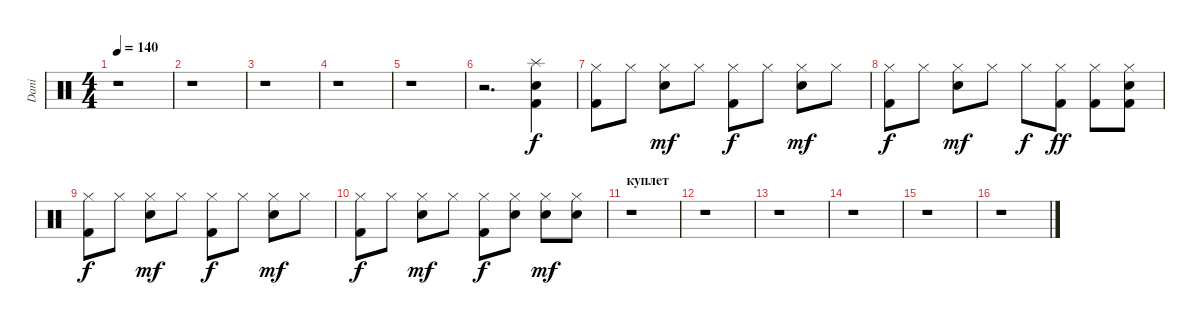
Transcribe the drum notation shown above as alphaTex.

\track ("Dani" "Dani") {instrument percussion}
\staff {score}
\articulation defaults
\ts (4 4)
\tempo 140
\clef neutral
\ks c
r.1{dy f} |
r.1 |
r.1 |
r.1 |
r.1 |
r.2{d} ("Splash (hit)" "Kick (hit) 2" "Snare (hit) 2").4 |
("Hi-Hat (closed)" "Kick (hit) 2").8 "Hi-Hat (closed)".8 ("Hi-Hat (closed)" "Snare (hit) 2").8{dy mf} "Hi-Hat (closed)".8 ("Hi-Hat (closed)" "Kick (hit) 2").8{dy f} "Hi-Hat (closed)".8 ("Hi-Hat (closed)" "Snare (hit) 2").8{dy mf} "Hi-Hat (closed)".8 |
("Hi-Hat (closed)" "Kick (hit) 2").8{dy f} "Hi-Hat (closed)".8 ("Hi-Hat (closed)" "Snare (hit) 2").8{dy mf} "Hi-Hat (closed)".8 "Hi-Hat (closed)".8{dy f} ("Hi-Hat (closed)" "Kick (hit) 2").8{dy ff} ("Hi-Hat (closed)" "Kick (hit) 2").8 ("Hi-Hat (closed)" "Snare (hit) 2" "Kick (hit) 2").8 |
("Hi-Hat (closed)" "Kick (hit) 2").8{dy f} "Hi-Hat (closed)".8 ("Hi-Hat (closed)" "Snare (hit) 2").8{dy mf} "Hi-Hat (closed)".8 ("Hi-Hat (closed)" "Kick (hit) 2").8{dy f} "Hi-Hat (closed)".8 ("Hi-Hat (closed)" "Snare (hit) 2").8{dy mf} "Hi-Hat (closed)".8 |
("Hi-Hat (closed)" "Kick (hit) 2").8{dy f} "Hi-Hat (closed)".8 ("Hi-Hat (closed)" "Snare (hit) 2").8{dy mf} "Hi-Hat (closed)".8 ("Hi-Hat (closed)" "Kick (hit) 2").8{dy f} ("Hi-Hat (closed)" "Snare (hit) 2").8 ("Hi-Hat (closed)" "Snare (hit) 2").8{dy mf} ("Hi-Hat (closed)" "Snare (hit) 2").8 |
\section ("" "куплет")
r.1 |
r.1 |
r.1 |
r.1 |
r.1 |
r.1
